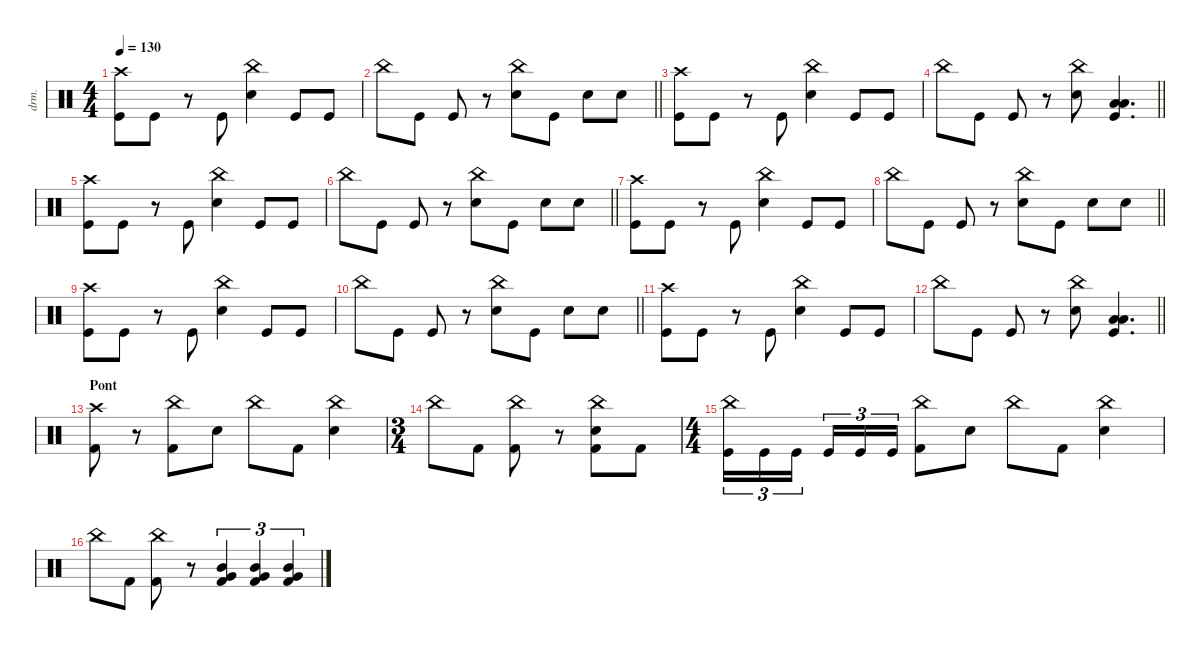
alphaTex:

\defaultSystemsLayout 4
\hideDynamics
\bracketExtendMode nobrackets
\track ("Manouche" "drm.") {solo instrument percussion}
\staff {score}
\articulation defaults
\ts (4 4)
\tempo 130
\clef neutral
\ks c
("Crash high (hit)" "Kick (hit)").8{dy f beam Down} "Kick (hit)".8{beam Down} r.8{beam Down} "Kick (hit)".8{beam Up} ("China (hit)" "Snare (hit) 2").4{beam Down} "Kick (hit)".8{beam Up} "Kick (hit)".8{beam Up} |
\barLineRight lightlight "China (hit)".8{beam Down} "Kick (hit)".8{beam Down} "Kick (hit)".8{beam Up}
r.8{beam Down} ("China (hit)" "Snare (hit) 2").8{beam Down} "Kick (hit)".8{beam Down} "Snare (hit) 2".8{beam Down} "Snare (hit) 2".8{beam Down} |
("Crash high (hit)" "Kick (hit)").8{beam Down} "Kick (hit)".8{beam Down} r.8{beam Down} "Kick (hit)".8{beam Up} ("China (hit)" "Snare (hit) 2").4{beam Down} "Kick (hit)".8{beam Up} "Kick (hit)".8{beam Up} |
\barLineRight lightlight "China (hit)".8{beam Down} "Kick (hit)".8{beam Down} "Kick (hit)".8{beam Up}
r.8{beam Down} ("China (hit)" "Snare (hit) 2").8{beam Down} ("Low Tom (hit)" "Kick (hit)" "Low Floor Tom (hit)").4{d dy ff beam Up} |
("Crash high (hit)" "Kick (hit)").8{dy f beam Down} "Kick (hit)".8{beam Down} r.8{beam Down} "Kick (hit)".8{beam Up} ("China (hit)" "Snare (hit) 2").4{beam Down} "Kick (hit)".8{beam Up} "Kick (hit)".8{beam Up} |
\barLineRight lightlight "China (hit)".8{beam Down} "Kick (hit)".8{beam Down} "Kick (hit)".8{beam Up}
r.8{beam Down} ("China (hit)" "Snare (hit) 2").8{beam Down} "Kick (hit)".8{beam Down} "Snare (hit) 2".8{beam Down} "Snare (hit) 2".8{beam Down} |
("Crash high (hit)" "Kick (hit)").8{beam Down} "Kick (hit)".8{beam Down} r.8{beam Down} "Kick (hit)".8{beam Up} ("China (hit)" "Snare (hit) 2").4{beam Down} "Kick (hit)".8{beam Up} "Kick (hit)".8{beam Up} |
\barLineRight lightlight "China (hit)".8{beam Down} "Kick (hit)".8{beam Down} "Kick (hit)".8{beam Up}
r.8{beam Down} ("China (hit)" "Snare (hit) 2").8{beam Down} "Kick (hit)".8{beam Down} "Snare (hit) 2".8{beam Down} "Snare (hit) 2".8{beam Down} |
("Crash high (hit)" "Kick (hit)").8{beam Down} "Kick (hit)".8{beam Down} r.8{beam Down} "Kick (hit)".8{beam Up} ("China (hit)" "Snare (hit) 2").4{beam Down} "Kick (hit)".8{beam Up} "Kick (hit)".8{beam Up} |
\barLineRight lightlight "China (hit)".8{beam Down} "Kick (hit)".8{beam Down} "Kick (hit)".8{beam Up}
r.8{beam Down} ("China (hit)" "Snare (hit) 2").8{beam Down} "Kick (hit)".8{beam Down} "Snare (hit) 2".8{beam Down} "Snare (hit) 2".8{beam Down} |
("Crash high (hit)" "Kick (hit)").8{beam Down} "Kick (hit)".8{beam Down} r.8{beam Down} "Kick (hit)".8{beam Up} ("China (hit)" "Snare (hit) 2").4{beam Down} "Kick (hit)".8{beam Up} "Kick (hit)".8{beam Up} |
\barLineRight lightlight "China (hit)".8{beam Down} "Kick (hit)".8{beam Down} "Kick (hit)".8{beam Up}
r.8{beam Down} ("China (hit)" "Snare (hit) 2").8{beam Down} ("Low Tom (hit)" "Kick (hit)" "Low Floor Tom (hit)").4{d dy ff beam Up} |
\section ("" "Pont")
("Crash high (hit)" "Kick (hit) 2").8{dy f beam Down} r.8{beam Down} ("China (hit)" "Kick (hit) 2").8{beam Down} "Snare (hit) 2".8{beam Down} "China (hit)".8{beam Down} "Kick (hit) 2".8{beam Down} ("China (hit)" "Snare (hit) 2").4{beam Down} |
\ts (3 4)
\beaming (8 2 2 2)
"China (hit)".8{beam Down} "Kick (hit) 2".8{beam Down} ("China (hit)" "Kick (hit) 2").8{beam Down} r.8{beam Down} ("China (hit)" "Snare (hit) 2" "Kick (hit) 2").8{beam Down} "Kick (hit) 2".8{beam Down} |
\ts (4 4)
\beaming (8 2 2 2 2)
("Kick (hit)" "China (hit)").16{tu (3 2) beam Down} "Kick (hit)".16{tu (3 2) beam Down} "Kick (hit)".16{tu (3 2) beam Down} "Kick (hit)".16{tu (3 2) beam Up} "Kick (hit)".16{tu (3 2) beam Up} "Kick (hit)".16{tu (3 2) beam Up} ("China (hit)" "Kick (hit) 2").8{beam Down} "Snare (hit) 2".8{beam Down} "China (hit)".8{beam Down} "Kick (hit) 2".8{beam Down} ("China (hit)" "Snare (hit) 2").4{beam Down} |
"China (hit)".8{beam Down} "Kick (hit) 2".8{beam Down} ("Kick (hit) 2" "China (hit)").8{beam Down} r.8{beam Down} ("Kick (hit) 2" "Mid Tom (hit)" "Very Low Tom (hit)").4{tu (3 2) beam Up} ("Kick (hit) 2" "Mid Tom (hit)" "Very Low Tom (hit)").4{tu (3 2) beam Up} ("Kick (hit) 2" "Mid Tom (hit)" "Very Low Tom (hit)").4{tu (3 2) beam Up}
